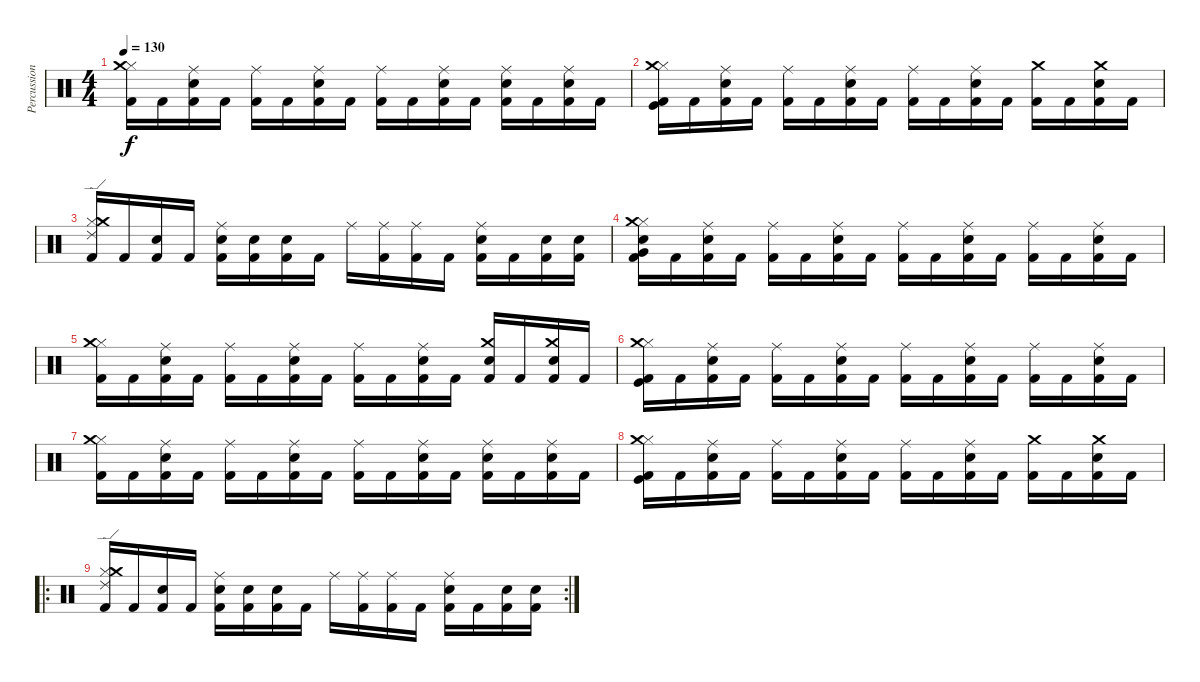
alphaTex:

\track ("Percussion" "Percussion") {instrument percussion}
\staff {score}
\articulation defaults
\ts (4 4)
\tempo 130
\clef neutral
\ks c
("Kick (hit) 2" "Hi-Hat (closed)" "Crash medium (hit)").16{dy f} "Kick (hit) 2".16 ("Kick (hit) 2" "Snare (hit) 2" "Ride (middle)").16 "Kick (hit) 2".16 ("Kick (hit) 2" "Ride (middle)").16 "Kick (hit) 2".16 ("Kick (hit) 2" "Snare (hit) 2" "Ride (middle)").16 "Kick (hit) 2".16 ("Kick (hit) 2" "Ride (middle)").16 "Kick (hit) 2".16 ("Kick (hit) 2" "Snare (hit) 2" "Ride (middle)").16 "Kick (hit) 2".16 ("Kick (hit) 2" "Snare (hit) 2" "Ride (middle)").16 "Kick (hit) 2".16 ("Kick (hit) 2" "Snare (hit) 2" "Ride (middle)").16 "Kick (hit) 2".16 |
("Kick (hit) 2" "Hi-Hat (closed)" "Kick (hit)" "Crash medium (hit)").16 "Kick (hit) 2".16 ("Kick (hit) 2" "Snare (hit) 2" "Ride (middle)").16 "Kick (hit) 2".16 ("Kick (hit) 2" "Ride (middle)").16 "Kick (hit) 2".16 ("Kick (hit) 2" "Snare (hit) 2" "Ride (middle)").16 "Kick (hit) 2".16 ("Kick (hit) 2" "Ride (middle)").16 "Kick (hit) 2".16 ("Kick (hit) 2" "Snare (hit) 2" "Ride (middle)").16 "Kick (hit) 2".16 ("Kick (hit) 2" "Crash medium (hit)").16 "Kick (hit) 2".16 ("Kick (hit) 2" "Snare (hit) 2" "Crash medium (hit)").16 "Kick (hit) 2".16 |
("Kick (hit) 2" "Hi-Hat (closed)" "Ride (edge) 2" "Crash medium (hit)").16 "Kick (hit) 2".16 ("Kick (hit) 2" "Snare (hit) 2").16 "Kick (hit) 2".16 ("Kick (hit) 2" "Snare (hit) 2" "Ride (middle)").16 ("Kick (hit) 2" "Snare (hit) 2").16 ("Kick (hit) 2" "Snare (hit) 2").16 "Kick (hit) 2".16 "Ride (middle)".16 ("Kick (hit) 2" "Ride (middle)").16 ("Kick (hit) 2" "Ride (middle)").16 "Kick (hit) 2".16 ("Kick (hit) 2" "Snare (hit) 2" "Ride (middle)").16 "Kick (hit) 2".16 ("Kick (hit) 2" "Snare (hit) 2").16 ("Kick (hit) 2" "Snare (hit) 2").16 |
("Kick (hit) 2" "Snare (hit) 2" "Hi-Hat (closed)" "Crash medium (hit)" "Very Low Tom (hit)").16 "Kick (hit) 2".16 ("Kick (hit) 2" "Snare (hit) 2" "Ride (middle)").16 "Kick (hit) 2".16 ("Kick (hit) 2" "Ride (middle)").16 "Kick (hit) 2".16 ("Kick (hit) 2" "Snare (hit) 2" "Ride (middle)").16 "Kick (hit) 2".16 ("Kick (hit) 2" "Ride (middle)").16 "Kick (hit) 2".16 ("Kick (hit) 2" "Snare (hit) 2" "Ride (middle)").16 "Kick (hit) 2".16 ("Kick (hit) 2" "Ride (middle)").16 "Kick (hit) 2".16 ("Kick (hit) 2" "Snare (hit) 2" "Ride (middle)").16 "Kick (hit) 2".16 |
("Kick (hit) 2" "Hi-Hat (closed)" "Crash medium (hit)").16 "Kick (hit) 2".16 ("Kick (hit) 2" "Snare (hit) 2" "Ride (middle)").16 "Kick (hit) 2".16 ("Kick (hit) 2" "Ride (middle)").16 "Kick (hit) 2".16 ("Kick (hit) 2" "Snare (hit) 2" "Ride (middle)").16 "Kick (hit) 2".16 ("Kick (hit) 2" "Ride (middle)").16 "Kick (hit) 2".16 ("Kick (hit) 2" "Snare (hit) 2" "Ride (middle)").16 "Kick (hit) 2".16 ("Kick (hit) 2" "Snare (hit) 2" "Crash medium (hit)").16 "Kick (hit) 2".16 ("Kick (hit) 2" "Snare (hit) 2" "Crash medium (hit)").16 "Kick (hit) 2".16 |
("Kick (hit) 2" "Hi-Hat (closed)" "Kick (hit)" "Crash medium (hit)").16 "Kick (hit) 2".16 ("Kick (hit) 2" "Snare (hit) 2" "Ride (middle)").16 "Kick (hit) 2".16 ("Kick (hit) 2" "Ride (middle)").16 "Kick (hit) 2".16 ("Kick (hit) 2" "Snare (hit) 2" "Ride (middle)").16 "Kick (hit) 2".16 ("Kick (hit) 2" "Ride (middle)").16 "Kick (hit) 2".16 ("Kick (hit) 2" "Snare (hit) 2" "Ride (middle)").16 "Kick (hit) 2".16 ("Kick (hit) 2" "Ride (middle)").16 "Kick (hit) 2".16 ("Kick (hit) 2" "Snare (hit) 2" "Ride (middle)").16 "Kick (hit) 2".16 |
("Kick (hit) 2" "Hi-Hat (closed)" "Crash medium (hit)").16 "Kick (hit) 2".16 ("Kick (hit) 2" "Snare (hit) 2" "Ride (middle)").16 "Kick (hit) 2".16 ("Kick (hit) 2" "Ride (middle)").16 "Kick (hit) 2".16 ("Kick (hit) 2" "Snare (hit) 2" "Ride (middle)").16 "Kick (hit) 2".16 ("Kick (hit) 2" "Ride (middle)").16 "Kick (hit) 2".16 ("Kick (hit) 2" "Snare (hit) 2" "Ride (middle)").16 "Kick (hit) 2".16 ("Kick (hit) 2" "Snare (hit) 2" "Ride (middle)").16 "Kick (hit) 2".16 ("Kick (hit) 2" "Snare (hit) 2" "Ride (middle)").16 "Kick (hit) 2".16 |
("Kick (hit) 2" "Hi-Hat (closed)" "Kick (hit)" "Crash medium (hit)").16 "Kick (hit) 2".16 ("Kick (hit) 2" "Snare (hit) 2" "Ride (middle)").16 "Kick (hit) 2".16 ("Kick (hit) 2" "Ride (middle)").16 "Kick (hit) 2".16 ("Kick (hit) 2" "Snare (hit) 2" "Ride (middle)").16 "Kick (hit) 2".16 ("Kick (hit) 2" "Ride (middle)").16 "Kick (hit) 2".16 ("Kick (hit) 2" "Snare (hit) 2" "Ride (middle)").16 "Kick (hit) 2".16 ("Kick (hit) 2" "Crash medium (hit)").16 "Kick (hit) 2".16 ("Kick (hit) 2" "Snare (hit) 2" "Crash medium (hit)").16 "Kick (hit) 2".16 |
\ro
\rc 2
("Kick (hit) 2" "Hi-Hat (closed)" "Ride (edge) 2" "Crash medium (hit)").16 "Kick (hit) 2".16 ("Kick (hit) 2" "Snare (hit) 2").16 "Kick (hit) 2".16 ("Kick (hit) 2" "Snare (hit) 2" "Ride (middle)").16 ("Kick (hit) 2" "Snare (hit) 2").16 ("Kick (hit) 2" "Snare (hit) 2").16 "Kick (hit) 2".16 "Ride (middle)".16 ("Kick (hit) 2" "Ride (middle)").16 ("Kick (hit) 2" "Ride (middle)").16 "Kick (hit) 2".16 ("Kick (hit) 2" "Snare (hit) 2" "Ride (middle)").16 "Kick (hit) 2".16 ("Kick (hit) 2" "Snare (hit) 2").16 ("Kick (hit) 2" "Snare (hit) 2").16
